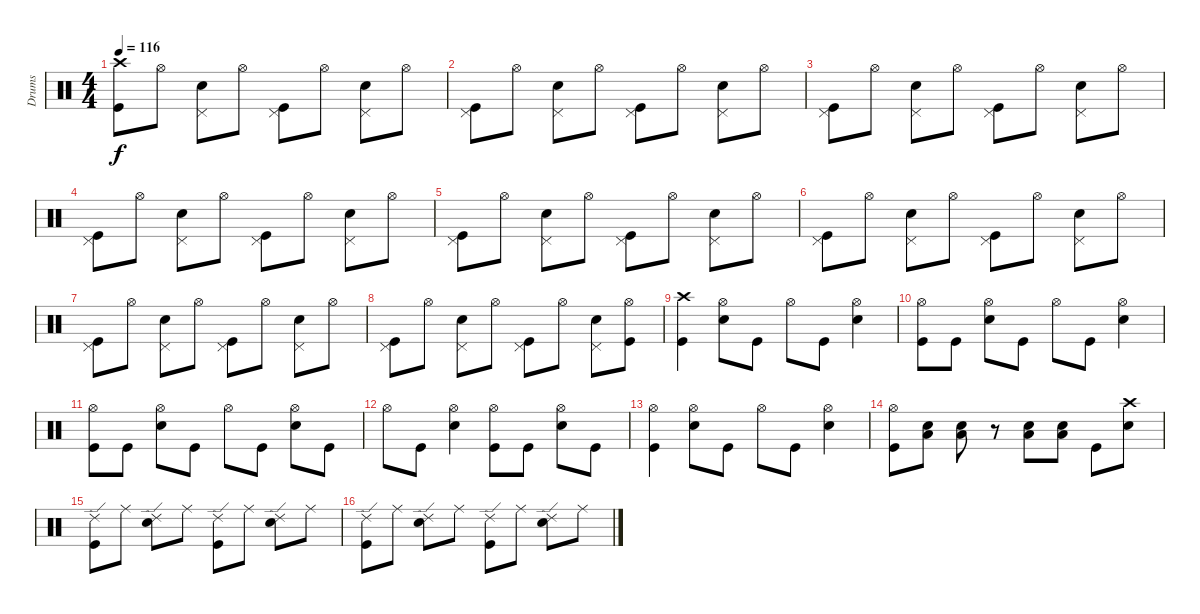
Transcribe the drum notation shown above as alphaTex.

\track ("Drums" "Drums") {instrument percussion}
\staff {score}
\articulation defaults
\ts (4 4)
\tempo 116
\clef neutral
\ks c
("Crash high (hit)" "Kick (hit)").8{dy f} "Hi-Hat (open)".8 ("Pedal Hi-Hat (hit)" "Electric Snare (hit)").8 "Hi-Hat (open)".8 ("Pedal Hi-Hat (hit)" "Kick (hit)").8 "Hi-Hat (open)".8 ("Pedal Hi-Hat (hit)" "Electric Snare (hit)").8 "Hi-Hat (open)".8 |
("Pedal Hi-Hat (hit)" "Kick (hit)").8 "Hi-Hat (open)".8 ("Pedal Hi-Hat (hit)" "Electric Snare (hit)").8 "Hi-Hat (open)".8 ("Pedal Hi-Hat (hit)" "Kick (hit)").8 "Hi-Hat (open)".8 ("Pedal Hi-Hat (hit)" "Electric Snare (hit)").8 "Hi-Hat (open)".8 |
("Pedal Hi-Hat (hit)" "Kick (hit)").8 "Hi-Hat (open)".8 ("Pedal Hi-Hat (hit)" "Electric Snare (hit)").8 "Hi-Hat (open)".8 ("Pedal Hi-Hat (hit)" "Kick (hit)").8 "Hi-Hat (open)".8 ("Pedal Hi-Hat (hit)" "Electric Snare (hit)").8 "Hi-Hat (open)".8 |
("Pedal Hi-Hat (hit)" "Kick (hit)").8 "Hi-Hat (open)".8 ("Pedal Hi-Hat (hit)" "Electric Snare (hit)").8 "Hi-Hat (open)".8 ("Pedal Hi-Hat (hit)" "Kick (hit)").8 "Hi-Hat (open)".8 ("Pedal Hi-Hat (hit)" "Electric Snare (hit)").8 "Hi-Hat (open)".8 |
("Pedal Hi-Hat (hit)" "Kick (hit)").8 "Hi-Hat (open)".8 ("Pedal Hi-Hat (hit)" "Electric Snare (hit)").8 "Hi-Hat (open)".8 ("Pedal Hi-Hat (hit)" "Kick (hit)").8 "Hi-Hat (open)".8 ("Pedal Hi-Hat (hit)" "Electric Snare (hit)").8 "Hi-Hat (open)".8 |
("Pedal Hi-Hat (hit)" "Kick (hit)").8 "Hi-Hat (open)".8 ("Pedal Hi-Hat (hit)" "Electric Snare (hit)").8 "Hi-Hat (open)".8 ("Pedal Hi-Hat (hit)" "Kick (hit)").8 "Hi-Hat (open)".8 ("Pedal Hi-Hat (hit)" "Electric Snare (hit)").8 "Hi-Hat (open)".8 |
("Pedal Hi-Hat (hit)" "Kick (hit)").8 "Hi-Hat (open)".8 ("Pedal Hi-Hat (hit)" "Electric Snare (hit)").8 "Hi-Hat (open)".8 ("Pedal Hi-Hat (hit)" "Kick (hit)").8 "Hi-Hat (open)".8 ("Pedal Hi-Hat (hit)" "Electric Snare (hit)").8 "Hi-Hat (open)".8 |
("Pedal Hi-Hat (hit)" "Kick (hit)").8 "Hi-Hat (open)".8 ("Pedal Hi-Hat (hit)" "Electric Snare (hit)").8 "Hi-Hat (open)".8 ("Pedal Hi-Hat (hit)" "Kick (hit)").8 "Hi-Hat (open)".8 ("Pedal Hi-Hat (hit)" "Electric Snare (hit)").8 ("Hi-Hat (open)" "Kick (hit)").8 |
("Crash high (hit)" "Kick (hit)").4 ("Hi-Hat (open)" "Electric Snare (hit)").8 "Kick (hit)".8 "Hi-Hat (open)".8 "Kick (hit)".8 ("Hi-Hat (open)" "Electric Snare (hit)").4 |
("Hi-Hat (open)" "Kick (hit)").8 "Kick (hit)".8 ("Hi-Hat (open)" "Electric Snare (hit)").8 "Kick (hit)".8 "Hi-Hat (open)".8 "Kick (hit)".8 ("Hi-Hat (open)" "Electric Snare (hit)").4 |
("Hi-Hat (open)" "Kick (hit)").8 "Kick (hit)".8 ("Hi-Hat (open)" "Electric Snare (hit)").8 "Kick (hit)".8 "Hi-Hat (open)".8 "Kick (hit)".8 ("Hi-Hat (open)" "Electric Snare (hit)").8 "Kick (hit)".8 |
"Hi-Hat (open)".8 "Kick (hit)".8 ("Hi-Hat (open)" "Electric Snare (hit)").4 ("Hi-Hat (open)" "Kick (hit)").8 "Kick (hit)".8 ("Hi-Hat (open)" "Electric Snare (hit)").8 "Kick (hit)".8 |
("Hi-Hat (open)" "Kick (hit)").4 ("Hi-Hat (open)" "Electric Snare (hit)").8 "Kick (hit)".8 "Hi-Hat (open)".8 "Kick (hit)".8 ("Hi-Hat (open)" "Electric Snare (hit)").4 |
("Hi-Hat (open)" "Kick (hit)").8 ("Electric Snare (hit)" "Low Tom (hit)").8 ("Electric Snare (hit)" "Low Tom (hit)").8 r.8 ("Electric Snare (hit)" "Low Tom (hit)").8 ("Electric Snare (hit)" "Low Tom (hit)").8 "Kick (hit)".8 ("Crash high (hit)" "Electric Snare (hit)").8 |
("Ride (edge) 2" "Kick (hit)").8 "Ride (middle)".8 ("Ride (edge) 2" "Electric Snare (hit)").8 "Ride (middle)".8 ("Ride (edge) 2" "Kick (hit)").8 "Ride (middle)".8 ("Ride (edge) 2" "Electric Snare (hit)").8 "Ride (middle)".8 |
("Ride (edge) 2" "Kick (hit)").8 "Ride (middle)".8 ("Ride (edge) 2" "Electric Snare (hit)").8 "Ride (middle)".8 ("Ride (edge) 2" "Kick (hit)").8 "Ride (middle)".8 ("Ride (edge) 2" "Electric Snare (hit)").8 "Ride (middle)".8
